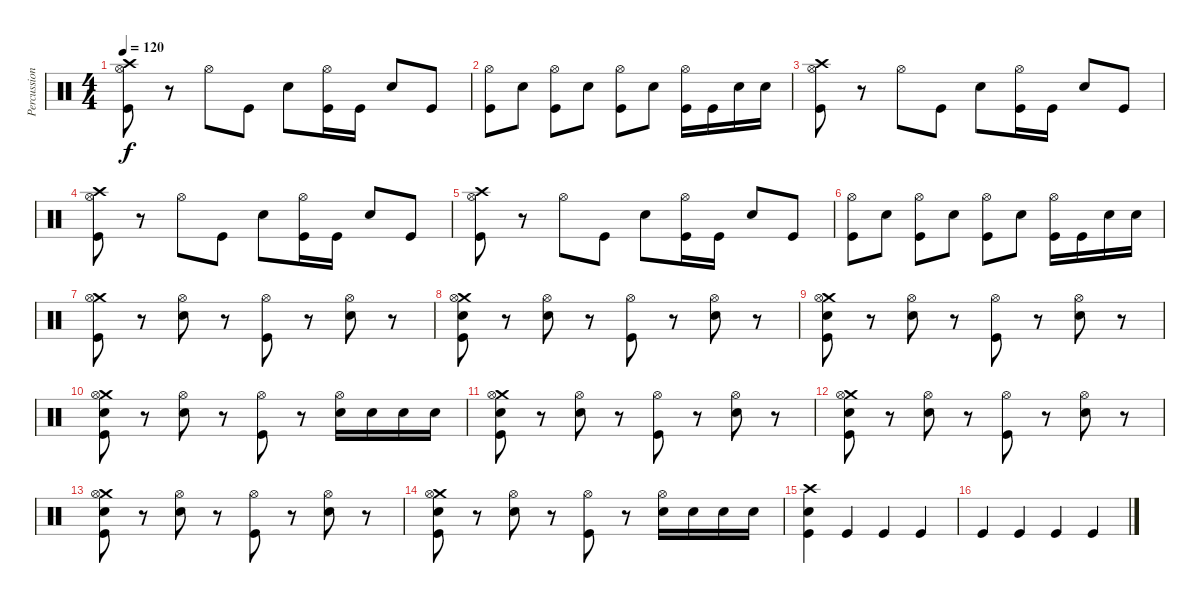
\track ("Percussion" "Percussion") {instrument percussion}
\staff {score}
\articulation defaults
\ts (4 4)
\tempo 120
\clef neutral
\ks c
("Crash high (hit)" "Hi-Hat (open)" "Kick (hit)").8{dy f} r.8 "Hi-Hat (open)".8 "Kick (hit)".8 "Electric Snare (hit)".8 ("Hi-Hat (open)" "Kick (hit)").16 "Kick (hit)".16 "Electric Snare (hit)".8 "Kick (hit)".8 |
("Hi-Hat (open)" "Kick (hit)").8 "Electric Snare (hit)".8 ("Hi-Hat (open)" "Kick (hit)").8 "Electric Snare (hit)".8 ("Hi-Hat (open)" "Kick (hit)").8 "Electric Snare (hit)".8 ("Hi-Hat (open)" "Kick (hit)").16 "Kick (hit)".16 "Electric Snare (hit)".16 "Electric Snare (hit)".16 |
("Crash high (hit)" "Hi-Hat (open)" "Kick (hit)").8 r.8 "Hi-Hat (open)".8 "Kick (hit)".8 "Electric Snare (hit)".8 ("Hi-Hat (open)" "Kick (hit)").16 "Kick (hit)".16 "Electric Snare (hit)".8 "Kick (hit)".8 |
("Crash high (hit)" "Hi-Hat (open)" "Kick (hit)").8 r.8 "Hi-Hat (open)".8 "Kick (hit)".8 "Electric Snare (hit)".8 ("Hi-Hat (open)" "Kick (hit)").16 "Kick (hit)".16 "Electric Snare (hit)".8 "Kick (hit)".8 |
("Crash high (hit)" "Hi-Hat (open)" "Kick (hit)").8 r.8 "Hi-Hat (open)".8 "Kick (hit)".8 "Electric Snare (hit)".8 ("Hi-Hat (open)" "Kick (hit)").16 "Kick (hit)".16 "Electric Snare (hit)".8 "Kick (hit)".8 |
("Hi-Hat (open)" "Kick (hit)").8 "Electric Snare (hit)".8 ("Hi-Hat (open)" "Kick (hit)").8 "Electric Snare (hit)".8 ("Hi-Hat (open)" "Kick (hit)").8 "Electric Snare (hit)".8 ("Hi-Hat (open)" "Kick (hit)").16 "Kick (hit)".16 "Electric Snare (hit)".16 "Electric Snare (hit)".16 |
("Crash medium (hit)" "Hi-Hat (open)" "Kick (hit)").8 r.8 ("Hi-Hat (open)" "Electric Snare (hit)").8 r.8 ("Hi-Hat (open)" "Kick (hit)").8 r.8 ("Hi-Hat (open)" "Electric Snare (hit)").8 r.8 |
("Crash medium (hit)" "Hi-Hat (open)" "Electric Snare (hit)" "Kick (hit)").8 r.8 ("Hi-Hat (open)" "Electric Snare (hit)").8 r.8 ("Hi-Hat (open)" "Kick (hit)").8 r.8 ("Hi-Hat (open)" "Electric Snare (hit)").8 r.8 |
("Crash medium (hit)" "Hi-Hat (open)" "Electric Snare (hit)" "Kick (hit)").8 r.8 ("Hi-Hat (open)" "Electric Snare (hit)").8 r.8 ("Hi-Hat (open)" "Kick (hit)").8 r.8 ("Hi-Hat (open)" "Electric Snare (hit)").8 r.8 |
("Crash medium (hit)" "Hi-Hat (open)" "Electric Snare (hit)" "Kick (hit)").8 r.8 ("Hi-Hat (open)" "Electric Snare (hit)").8 r.8 ("Hi-Hat (open)" "Kick (hit)").8 r.8 ("Hi-Hat (open)" "Electric Snare (hit)").16 "Electric Snare (hit)".16 "Electric Snare (hit)".16 "Electric Snare (hit)".16 |
("Crash medium (hit)" "Hi-Hat (open)" "Electric Snare (hit)" "Kick (hit)").8 r.8 ("Hi-Hat (open)" "Electric Snare (hit)").8 r.8 ("Hi-Hat (open)" "Kick (hit)").8 r.8 ("Hi-Hat (open)" "Electric Snare (hit)").8 r.8 |
("Crash medium (hit)" "Hi-Hat (open)" "Electric Snare (hit)" "Kick (hit)").8 r.8 ("Hi-Hat (open)" "Electric Snare (hit)").8 r.8 ("Hi-Hat (open)" "Kick (hit)").8 r.8 ("Hi-Hat (open)" "Electric Snare (hit)").8 r.8 |
("Crash medium (hit)" "Hi-Hat (open)" "Electric Snare (hit)" "Kick (hit)").8 r.8 ("Hi-Hat (open)" "Electric Snare (hit)").8 r.8 ("Hi-Hat (open)" "Kick (hit)").8 r.8 ("Hi-Hat (open)" "Electric Snare (hit)").8 r.8 |
("Crash medium (hit)" "Hi-Hat (open)" "Electric Snare (hit)" "Kick (hit)").8 r.8 ("Hi-Hat (open)" "Electric Snare (hit)").8 r.8 ("Hi-Hat (open)" "Kick (hit)").8 r.8 ("Hi-Hat (open)" "Electric Snare (hit)").16 "Electric Snare (hit)".16 "Electric Snare (hit)".16 "Electric Snare (hit)".16 |
("Crash high (hit)" "Electric Snare (hit)" "Kick (hit)").4 "Kick (hit)".4 "Kick (hit)".4 "Kick (hit)".4 |
"Kick (hit)".4 "Kick (hit)".4 "Kick (hit)".4 "Kick (hit)".4
